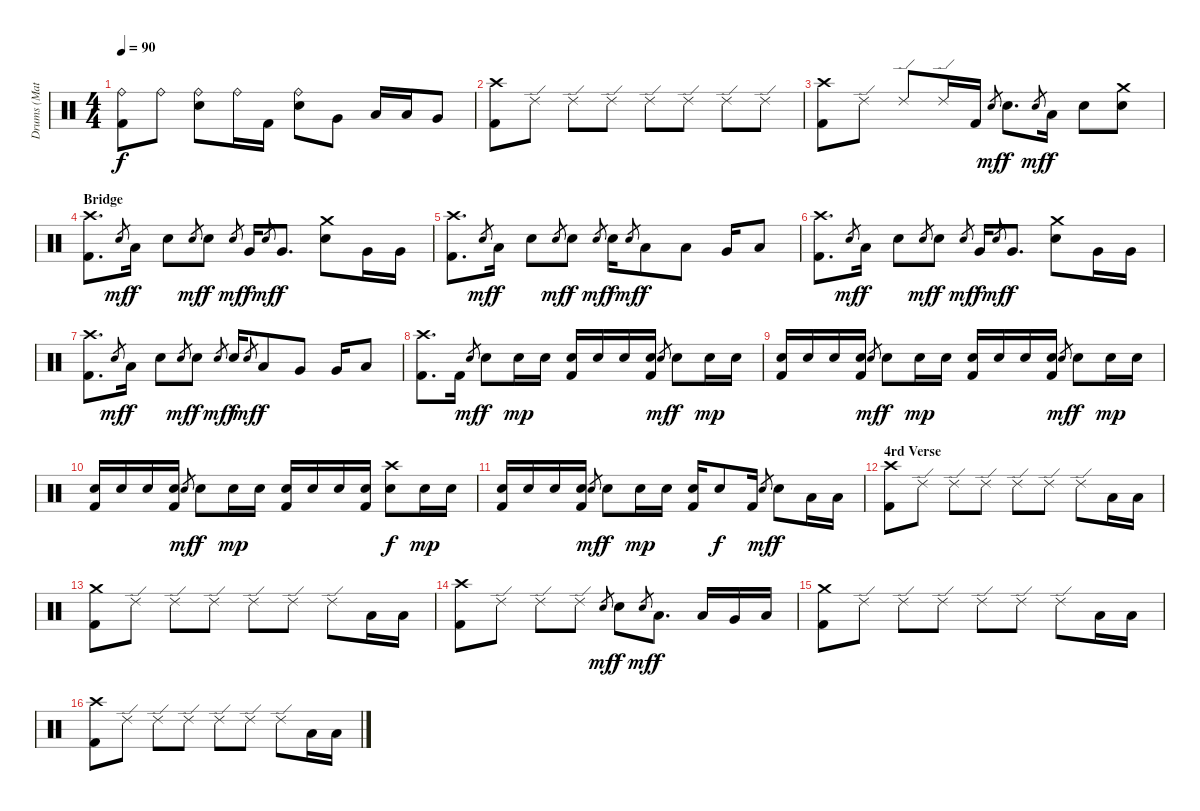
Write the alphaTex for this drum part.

\track ("Drums (Matt)" "Drums (Mat") {instrument percussion}
\staff {score}
\articulation defaults
\ts (4 4)
\tempo 90
\clef neutral
\ks c
("Ride (bell)" "Kick (hit) 2").8{dy f} "Ride (bell)".8 ("Ride (bell)" "Snare (hit) 2").8 "Ride (bell)".16 "Kick (hit) 2".16 ("Ride (bell)" "Snare (hit) 2").8 "Very Low Tom (hit)".8 "Low Tom (hit)".16 "Low Tom (hit)".16 "Very Low Tom (hit)".8 |
("Crash high (hit)" "Kick (hit) 2").8 "Ride (edge) 2".8 "Ride (edge) 2".8 "Ride (edge) 2".8 "Ride (edge) 2".8 "Ride (edge) 2".8 "Ride (edge) 2".8 "Ride (edge) 2".8 |
("Crash high (hit)" "Kick (hit) 2").8 "Ride (edge) 2".8 "Ride (edge) 2".8 "Ride (edge) 2".16 "Kick (hit) 2".16 "Snare (hit)".8{gr dy mf} "Snare (hit) 2".8{d dy f} "Snare (hit)".8{gr dy mf} "Low Tom (hit)".16{dy f} "Snare (hit)".8 ("Crash medium (hit)" "Snare (hit) 2").8 |
\section ("" "Bridge")
("Crash high (hit)" "Kick (hit) 2").8{d} "Snare (hit)".8{gr dy mf} "Low Tom (hit)".16{dy f} "Snare (hit)".8 "Snare (hit)".8{gr dy mf} "Snare (hit) 2".8{dy f} "Snare (hit)".8{gr dy mf} "Very Low Tom (hit)".16{dy f} "Snare (hit)".8{gr dy mf} "Very Low Tom (hit)".8{d dy f} ("Crash medium (hit)" "Snare (hit) 2").8 "Very Low Tom (hit)".16 "Very Low Tom (hit)".16 |
("Crash high (hit)" "Kick (hit) 2").8{d} "Snare (hit)".8{gr dy mf} "Low Tom (hit)".16{dy f} "Snare (hit)".8 "Snare (hit)".8{gr dy mf} "Snare (hit) 2".8{dy f} "Snare (hit)".8{gr dy mf} "Snare (hit) 2".16{dy f} "Snare (hit)".8{gr dy mf} "Low Tom (hit)".8{dy f} "Low Tom (hit)".8 "Very Low Tom (hit)".16 "Low Floor Tom (hit)".8 |
("Crash high (hit)" "Kick (hit) 2").8{d} "Snare (hit)".8{gr dy mf} "Low Tom (hit)".16{dy f} "Snare (hit)".8 "Snare (hit)".8{gr dy mf} "Snare (hit) 2".8{dy f} "Snare (hit)".8{gr dy mf} "Very Low Tom (hit)".16{dy f} "Snare (hit)".8{gr dy mf} "Very Low Tom (hit)".8{d dy f} ("Crash medium (hit)" "Snare (hit) 2").8 "Very Low Tom (hit)".16 "Very Low Tom (hit)".16 |
("Crash high (hit)" "Kick (hit) 2").8{d} "Snare (hit)".8{gr dy mf} "Low Tom (hit)".16{dy f} "Snare (hit)".8 "Snare (hit)".8{gr dy mf} "Snare (hit) 2".8{dy f} "Snare (hit)".8{gr dy mf} "Snare (hit) 2".16{dy f} "Snare (hit)".8{gr dy mf} "Low Tom (hit)".8{dy f} "Very Low Tom (hit)".8 "Very Low Tom (hit)".16 "Low Floor Tom (hit)".8 |
("Crash high (hit)" "Kick (hit) 2").8{d} "Kick (hit) 2".16 "Snare (hit)".8{gr dy mf} "Snare (hit) 2".8{dy f} "Snare (hit) 2".16{dy mp} "Snare (hit) 2".16 ("Snare (hit) 2" "Kick (hit) 2").16 "Snare (hit) 2".16 "Snare (hit) 2".16 ("Snare (hit) 2" "Kick (hit) 2").16 "Snare (hit)".8{gr dy mf} "Snare (hit) 2".8{dy f} "Snare (hit) 2".16{dy mp} "Snare (hit) 2".16 |
("Snare (hit) 2" "Kick (hit) 2").16 "Snare (hit) 2".16 "Snare (hit) 2".16 ("Snare (hit) 2" "Kick (hit) 2").16 "Snare (hit)".8{gr dy mf} "Snare (hit) 2".8{dy f} "Snare (hit) 2".16{dy mp} "Snare (hit) 2".16 ("Snare (hit) 2" "Kick (hit) 2").16 "Snare (hit) 2".16 "Snare (hit) 2".16 ("Snare (hit) 2" "Kick (hit) 2").16 "Snare (hit)".8{gr dy mf} "Snare (hit) 2".8{dy f} "Snare (hit) 2".16{dy mp} "Snare (hit) 2".16 |
("Snare (hit) 2" "Kick (hit) 2").16 "Snare (hit) 2".16 "Snare (hit) 2".16 ("Snare (hit) 2" "Kick (hit) 2").16 "Snare (hit)".8{gr dy mf} "Snare (hit) 2".8{dy f} "Snare (hit) 2".16{dy mp} "Snare (hit) 2".16 ("Snare (hit) 2" "Kick (hit) 2").16 "Snare (hit) 2".16 "Snare (hit) 2".16 ("Snare (hit) 2" "Kick (hit) 2").16 ("Crash high (hit)" "Snare (hit) 2").8{dy f} "Snare (hit) 2".16{dy mp} "Snare (hit) 2".16 |
("Snare (hit) 2" "Kick (hit) 2").16 "Snare (hit) 2".16 "Snare (hit) 2".16 ("Snare (hit) 2" "Kick (hit) 2").16 "Snare (hit)".8{gr dy mf} "Snare (hit) 2".8{dy f} "Snare (hit) 2".16{dy mp} "Snare (hit) 2".16 ("Snare (hit) 2" "Kick (hit) 2").16 "Snare (hit) 2".8{dy f} "Kick (hit) 2".16 "Snare (hit)".8{gr dy mf} "Snare (hit) 2".8{dy f} "Low Tom (hit)".16 "Low Tom (hit)".16 |
\section ("" "4rd Verse")
("Crash high (hit)" "Kick (hit) 2").8 "Ride (edge) 2".8 "Ride (edge) 2".8 "Ride (edge) 2".8 "Ride (edge) 2".8 "Ride (edge) 2".8 "Ride (edge) 2".8 "Low Tom (hit)".16 "Low Tom (hit)".16 |
("Crash medium (hit)" "Kick (hit) 2").8 "Ride (edge) 2".8 "Ride (edge) 2".8 "Ride (edge) 2".8 "Ride (edge) 2".8 "Ride (edge) 2".8 "Ride (edge) 2".8 "Low Tom (hit)".16 "Low Tom (hit)".16 |
("Crash high (hit)" "Kick (hit) 2").8 "Ride (edge) 2".8 "Ride (edge) 2".8 "Ride (edge) 2".8 "Snare (hit)".8{gr dy mf} "Snare (hit) 2".8{dy f} "Snare (hit)".8{gr dy mf} "Low Tom (hit)".8{d dy f} "Low Tom (hit)".16 "Very Low Tom (hit)".16 "Low Floor Tom (hit)".16 |
("Crash medium (hit)" "Kick (hit) 2").8 "Ride (edge) 2".8 "Ride (edge) 2".8 "Ride (edge) 2".8 "Ride (edge) 2".8 "Ride (edge) 2".8 "Ride (edge) 2".8 "Low Tom (hit)".16 "Low Tom (hit)".16 |
("Crash high (hit)" "Kick (hit) 2").8 "Ride (edge) 2".8 "Ride (edge) 2".8 "Ride (edge) 2".8 "Ride (edge) 2".8 "Ride (edge) 2".8 "Ride (edge) 2".8 "Low Tom (hit)".16 "Low Tom (hit)".16
